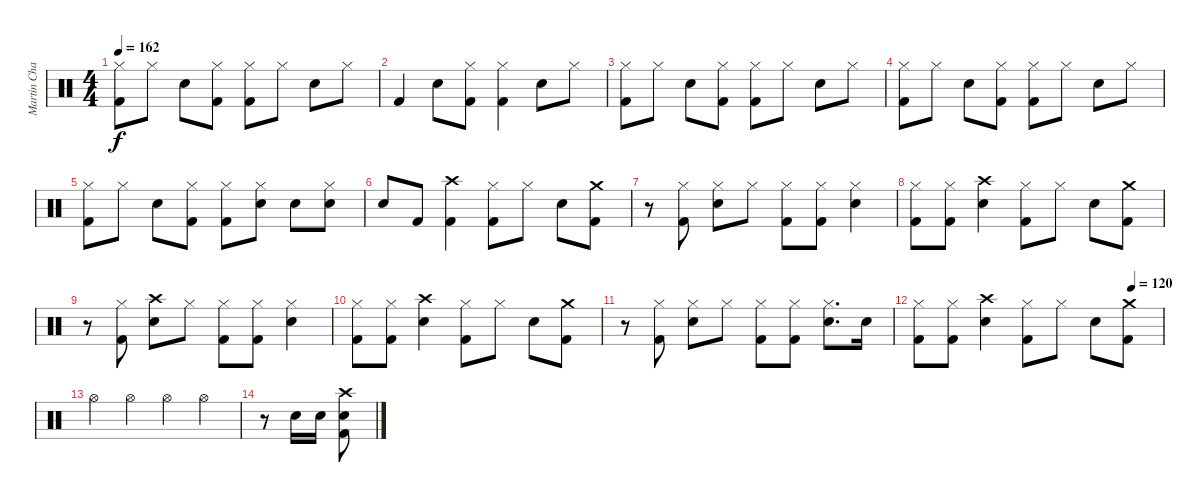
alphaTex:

\track ("Martin Chambers" "Martin Cha") {instrument percussion}
\staff {score}
\articulation defaults
\ts (4 4)
\tempo 162
\clef neutral
\ks c
("Hi-Hat (closed)" "Kick (hit) 2").8{dy f} "Hi-Hat (closed)".8 "Snare (hit) 2".8 ("Hi-Hat (closed)" "Kick (hit) 2").8 ("Hi-Hat (closed)" "Kick (hit) 2").8 "Hi-Hat (closed)".8 "Snare (hit) 2".8 "Hi-Hat (closed)".8 |
"Kick (hit) 2".4 "Snare (hit) 2".8 ("Hi-Hat (closed)" "Kick (hit) 2").8 ("Hi-Hat (closed)" "Kick (hit) 2").4 "Snare (hit) 2".8 "Hi-Hat (closed)".8 |
("Hi-Hat (closed)" "Kick (hit) 2").8 "Hi-Hat (closed)".8 "Snare (hit) 2".8 ("Hi-Hat (closed)" "Kick (hit) 2").8 ("Hi-Hat (closed)" "Kick (hit) 2").8 "Hi-Hat (closed)".8 "Snare (hit) 2".8 "Hi-Hat (closed)".8 |
("Hi-Hat (closed)" "Kick (hit) 2").8 "Hi-Hat (closed)".8 "Snare (hit) 2".8 ("Hi-Hat (closed)" "Kick (hit) 2").8 ("Hi-Hat (closed)" "Kick (hit) 2").8 "Hi-Hat (closed)".8 "Snare (hit) 2".8 "Hi-Hat (closed)".8 |
("Hi-Hat (closed)" "Kick (hit) 2").8 "Hi-Hat (closed)".8 "Snare (hit) 2".8 ("Hi-Hat (closed)" "Kick (hit) 2").8 ("Hi-Hat (closed)" "Kick (hit) 2").8 ("Hi-Hat (closed)" "Snare (hit) 2").8 "Snare (hit) 2".8 ("Hi-Hat (closed)" "Snare (hit) 2").8 |
"Snare (hit) 2".8 "Kick (hit) 2".8 ("Crash high (hit)" "Kick (hit) 2").4 ("Hi-Hat (closed)" "Kick (hit) 2").8 "Hi-Hat (closed)".8 "Snare (hit) 2".8 ("Crash medium (hit)" "Kick (hit) 2").8 |
r.8 ("Hi-Hat (closed)" "Kick (hit) 2").8 ("Hi-Hat (closed)" "Snare (hit) 2").8 "Hi-Hat (closed)".8 ("Hi-Hat (closed)" "Kick (hit) 2").8 ("Hi-Hat (closed)" "Kick (hit) 2").8 ("Hi-Hat (closed)" "Snare (hit) 2").4 |
("Hi-Hat (closed)" "Kick (hit) 2").8 ("Hi-Hat (closed)" "Kick (hit) 2").8 ("Crash high (hit)" "Snare (hit) 2").4 ("Hi-Hat (closed)" "Kick (hit) 2").8 "Hi-Hat (closed)".8 "Snare (hit) 2".8 ("Crash medium (hit)" "Kick (hit) 2").8 |
r.8 ("Hi-Hat (closed)" "Kick (hit) 2").8 ("Crash high (hit)" "Snare (hit) 2").8 "Hi-Hat (closed)".8 ("Hi-Hat (closed)" "Kick (hit) 2").8 ("Hi-Hat (closed)" "Kick (hit) 2").8 ("Hi-Hat (closed)" "Snare (hit) 2").4 |
("Hi-Hat (closed)" "Kick (hit) 2").8 ("Hi-Hat (closed)" "Kick (hit) 2").8 ("Crash high (hit)" "Snare (hit) 2").4 ("Hi-Hat (closed)" "Kick (hit) 2").8 "Hi-Hat (closed)".8 "Snare (hit) 2".8 ("Crash medium (hit)" "Kick (hit) 2").8 |
r.8 ("Hi-Hat (closed)" "Kick (hit) 2").8 ("Hi-Hat (closed)" "Snare (hit) 2").8 "Hi-Hat (closed)".8 ("Hi-Hat (closed)" "Kick (hit) 2").8 ("Hi-Hat (closed)" "Kick (hit) 2").8 ("Hi-Hat (closed)" "Snare (hit) 2").8{d} "Snare (hit) 2".16 |
\tempo (120 0.875)
("Hi-Hat (closed)" "Kick (hit) 2").8 ("Hi-Hat (closed)" "Kick (hit) 2").8 ("Crash high (hit)" "Snare (hit) 2").4 ("Hi-Hat (closed)" "Kick (hit) 2").8 "Hi-Hat (closed)".8 "Snare (hit) 2".8 ("Crash medium (hit)" "Kick (hit) 2").8 |
"Hi-Hat (open)".4 "Hi-Hat (open)".4 "Hi-Hat (open)".4 "Hi-Hat (open)".4 |
r.8 "Snare (hit) 2".16 "Snare (hit) 2".16 ("Crash high (hit)" "Snare (hit) 2" "Kick (hit) 2").8
